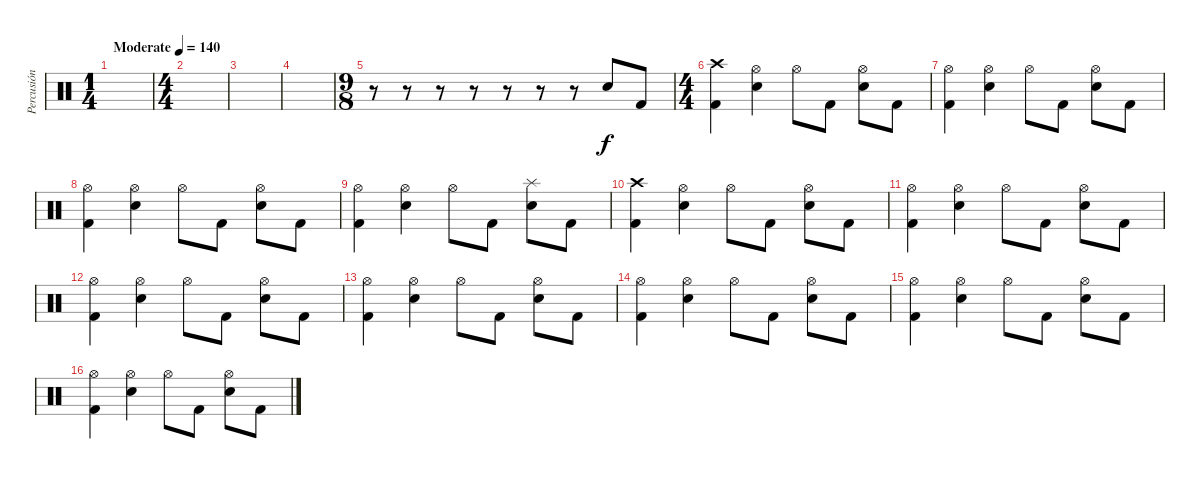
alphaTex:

\track ("Percusión" "Percusión") {instrument percussion}
\staff {score}
\articulation defaults
\ts (1 4)
\tempo (140 "Moderate")
\clef neutral
\ks c
|
\ts (4 4)
|
|
|
\ts (9 8)
r.8 r.8 r.8 r.8 r.8 r.8 r.8 "Snare (hit) 2".8 "Kick (hit) 2".8 |
\ts (4 4)
("Crash high (hit)" "Kick (hit) 2").4 ("Hi-Hat (open)" "Snare (hit) 2").4 "Hi-Hat (open)".8 "Kick (hit) 2".8 ("Hi-Hat (open)" "Snare (hit) 2").8 "Kick (hit) 2".8 |
("Hi-Hat (open)" "Kick (hit) 2").4 ("Hi-Hat (open)" "Snare (hit) 2").4 "Hi-Hat (open)".8 "Kick (hit) 2".8 ("Hi-Hat (open)" "Snare (hit) 2").8 "Kick (hit) 2".8 |
("Hi-Hat (open)" "Kick (hit) 2").4 ("Hi-Hat (open)" "Snare (hit) 2").4 "Hi-Hat (open)".8 "Kick (hit) 2".8 ("Hi-Hat (open)" "Snare (hit) 2").8 "Kick (hit) 2".8 |
("Hi-Hat (open)" "Kick (hit) 2").4 ("Hi-Hat (open)" "Snare (hit) 2").4 "Hi-Hat (open)".8 "Kick (hit) 2".8 ("Splash (hit)" "Snare (hit) 2").8 "Kick (hit) 2".8 |
("Crash high (hit)" "Kick (hit) 2").4 ("Hi-Hat (open)" "Snare (hit) 2").4 "Hi-Hat (open)".8 "Kick (hit) 2".8 ("Hi-Hat (open)" "Snare (hit) 2").8 "Kick (hit) 2".8 |
("Hi-Hat (open)" "Kick (hit) 2").4 ("Hi-Hat (open)" "Snare (hit) 2").4 "Hi-Hat (open)".8 "Kick (hit) 2".8 ("Hi-Hat (open)" "Snare (hit) 2").8 "Kick (hit) 2".8 |
("Hi-Hat (open)" "Kick (hit) 2").4 ("Hi-Hat (open)" "Snare (hit) 2").4 "Hi-Hat (open)".8 "Kick (hit) 2".8 ("Hi-Hat (open)" "Snare (hit) 2").8 "Kick (hit) 2".8 |
("Hi-Hat (open)" "Kick (hit) 2").4 ("Hi-Hat (open)" "Snare (hit) 2").4 "Hi-Hat (open)".8 "Kick (hit) 2".8 ("Hi-Hat (open)" "Snare (hit) 2").8 "Kick (hit) 2".8 |
("Hi-Hat (open)" "Kick (hit) 2").4 ("Hi-Hat (open)" "Snare (hit) 2").4 "Hi-Hat (open)".8 "Kick (hit) 2".8 ("Hi-Hat (open)" "Snare (hit) 2").8 "Kick (hit) 2".8 |
("Hi-Hat (open)" "Kick (hit) 2").4 ("Hi-Hat (open)" "Snare (hit) 2").4 "Hi-Hat (open)".8 "Kick (hit) 2".8 ("Hi-Hat (open)" "Snare (hit) 2").8 "Kick (hit) 2".8 |
("Hi-Hat (open)" "Kick (hit) 2").4 ("Hi-Hat (open)" "Snare (hit) 2").4 "Hi-Hat (open)".8 "Kick (hit) 2".8 ("Hi-Hat (open)" "Snare (hit) 2").8 "Kick (hit) 2".8
